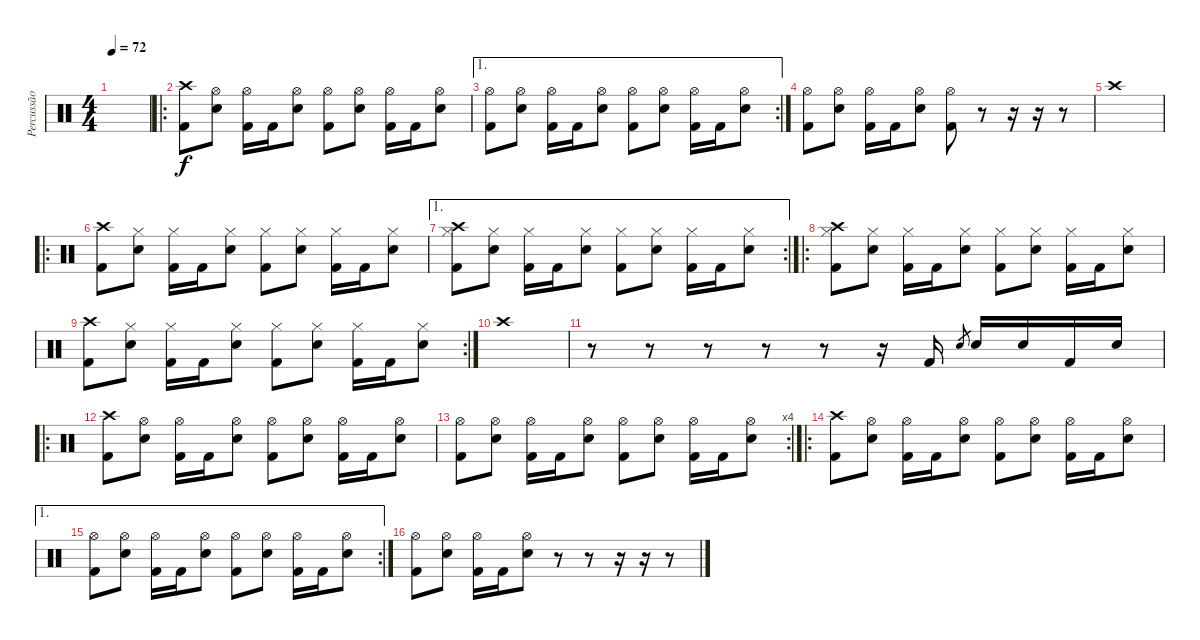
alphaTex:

\track ("Percussão" "Percussão") {instrument percussion}
\staff {score}
\articulation defaults
\ts (4 4)
\tempo 72
\clef neutral
\ks c
|
\ro
("Crash high (hit)" "Kick (hit) 2").8 ("Electric Snare (hit)" "Hi-Hat (open)").8 ("Kick (hit) 2" "Hi-Hat (open)").16 "Kick (hit) 2".16 ("Electric Snare (hit)" "Hi-Hat (open)").8 ("Kick (hit) 2" "Hi-Hat (open)").8 ("Electric Snare (hit)" "Hi-Hat (open)").8 ("Kick (hit) 2" "Hi-Hat (open)").16 "Kick (hit) 2".16 ("Electric Snare (hit)" "Hi-Hat (open)").8 |
\ae 1
\rc 2
("Kick (hit) 2" "Hi-Hat (open)").8 ("Electric Snare (hit)" "Hi-Hat (open)").8 ("Kick (hit) 2" "Hi-Hat (open)").16 "Kick (hit) 2".16 ("Electric Snare (hit)" "Hi-Hat (open)").8 ("Kick (hit) 2" "Hi-Hat (open)").8 ("Electric Snare (hit)" "Hi-Hat (open)").8 ("Kick (hit) 2" "Hi-Hat (open)").16 "Kick (hit) 2".16 ("Electric Snare (hit)" "Hi-Hat (open)").8 |
("Kick (hit) 2" "Hi-Hat (open)").8 ("Electric Snare (hit)" "Hi-Hat (open)").8 ("Kick (hit) 2" "Hi-Hat (open)").16 "Kick (hit) 2".16 ("Electric Snare (hit)" "Hi-Hat (open)").8 ("Kick (hit) 2" "Hi-Hat (open)").8 r.8 r.16 r.16 r.8 |
"Crash high (hit)".1 |
\ro
("Crash high (hit)" "Kick (hit) 2").8 ("Electric Snare (hit)" "Hi-Hat (closed)").8 ("Kick (hit) 2" "Hi-Hat (closed)").16 "Kick (hit) 2".16 ("Electric Snare (hit)" "Hi-Hat (closed)").8 ("Kick (hit) 2" "Hi-Hat (closed)").8 ("Electric Snare (hit)" "Hi-Hat (closed)").8 ("Kick (hit) 2" "Hi-Hat (closed)").16 "Kick (hit) 2".16 ("Electric Snare (hit)" "Hi-Hat (closed)").8 |
\ae 1
\rc 2
("Crash high (hit)" "Kick (hit) 2" "Hi-Hat (closed)").8 ("Electric Snare (hit)" "Hi-Hat (closed)").8 ("Kick (hit) 2" "Hi-Hat (closed)").16 "Kick (hit) 2".16 ("Electric Snare (hit)" "Hi-Hat (closed)").8 ("Kick (hit) 2" "Hi-Hat (closed)").8 ("Electric Snare (hit)" "Hi-Hat (closed)").8 ("Kick (hit) 2" "Hi-Hat (closed)").16 "Kick (hit) 2".16 ("Electric Snare (hit)" "Hi-Hat (closed)").8 |
\ro
("Crash high (hit)" "Kick (hit) 2" "Hi-Hat (closed)").8 ("Electric Snare (hit)" "Hi-Hat (closed)").8 ("Kick (hit) 2" "Hi-Hat (closed)").16 "Kick (hit) 2".16 ("Electric Snare (hit)" "Hi-Hat (closed)").8 ("Kick (hit) 2" "Hi-Hat (closed)").8 ("Electric Snare (hit)" "Hi-Hat (closed)").8 ("Kick (hit) 2" "Hi-Hat (closed)").16 "Kick (hit) 2".16 ("Electric Snare (hit)" "Hi-Hat (closed)").8 |
\rc 2
("Crash high (hit)" "Kick (hit) 2").8 ("Electric Snare (hit)" "Hi-Hat (closed)").8 ("Kick (hit) 2" "Hi-Hat (closed)").16 "Kick (hit) 2".16 ("Electric Snare (hit)" "Hi-Hat (closed)").8 ("Kick (hit) 2" "Hi-Hat (closed)").8 ("Electric Snare (hit)" "Hi-Hat (closed)").8 ("Kick (hit) 2" "Hi-Hat (closed)").16 "Kick (hit) 2".16 ("Electric Snare (hit)" "Hi-Hat (closed)").8 |
"Crash high (hit)".1 |
r.8 r.8 r.8 r.8 r.8 r.16 "Kick (hit) 2".16 "Electric Snare (hit)".8{gr} "Electric Snare (hit)".16 "Electric Snare (hit)".16 "Kick (hit) 2".16 "Electric Snare (hit)".16 |
\ro
("Crash high (hit)" "Kick (hit) 2").8 ("Electric Snare (hit)" "Hi-Hat (open)").8 ("Kick (hit) 2" "Hi-Hat (open)").16 "Kick (hit) 2".16 ("Electric Snare (hit)" "Hi-Hat (open)").8 ("Kick (hit) 2" "Hi-Hat (open)").8 ("Electric Snare (hit)" "Hi-Hat (open)").8 ("Kick (hit) 2" "Hi-Hat (open)").16 "Kick (hit) 2".16 ("Electric Snare (hit)" "Hi-Hat (open)").8 |
\rc 4
("Kick (hit) 2" "Hi-Hat (open)").8 ("Electric Snare (hit)" "Hi-Hat (open)").8 ("Kick (hit) 2" "Hi-Hat (open)").16 "Kick (hit) 2".16 ("Electric Snare (hit)" "Hi-Hat (open)").8 ("Kick (hit) 2" "Hi-Hat (open)").8 ("Electric Snare (hit)" "Hi-Hat (open)").8 ("Kick (hit) 2" "Hi-Hat (open)").16 "Kick (hit) 2".16 ("Electric Snare (hit)" "Hi-Hat (open)").8 |
\ro
("Crash high (hit)" "Kick (hit) 2").8 ("Electric Snare (hit)" "Hi-Hat (open)").8 ("Kick (hit) 2" "Hi-Hat (open)").16 "Kick (hit) 2".16 ("Electric Snare (hit)" "Hi-Hat (open)").8 ("Kick (hit) 2" "Hi-Hat (open)").8 ("Electric Snare (hit)" "Hi-Hat (open)").8 ("Kick (hit) 2" "Hi-Hat (open)").16 "Kick (hit) 2".16 ("Electric Snare (hit)" "Hi-Hat (open)").8 |
\ae 1
\rc 2
("Kick (hit) 2" "Hi-Hat (open)").8 ("Electric Snare (hit)" "Hi-Hat (open)").8 ("Kick (hit) 2" "Hi-Hat (open)").16 "Kick (hit) 2".16 ("Electric Snare (hit)" "Hi-Hat (open)").8 ("Kick (hit) 2" "Hi-Hat (open)").8 ("Electric Snare (hit)" "Hi-Hat (open)").8 ("Kick (hit) 2" "Hi-Hat (open)").16 "Kick (hit) 2".16 ("Electric Snare (hit)" "Hi-Hat (open)").8 |
("Kick (hit) 2" "Hi-Hat (open)").8 ("Electric Snare (hit)" "Hi-Hat (open)").8 ("Kick (hit) 2" "Hi-Hat (open)").16 "Kick (hit) 2".16 ("Electric Snare (hit)" "Hi-Hat (open)").8 r.8 r.8 r.16 r.16 r.8
